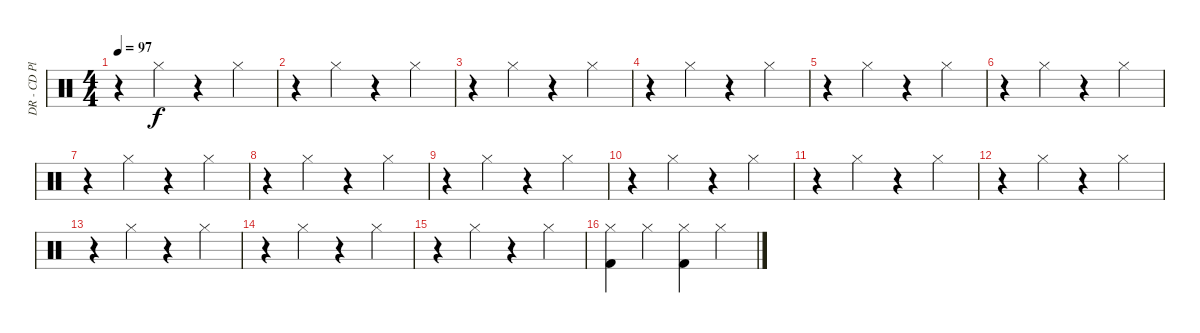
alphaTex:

\track ("DR - CD Player" "DR - CD Pl") {instrument percussion}
\staff {score}
\articulation defaults
\ts (4 4)
\tempo 97
\clef neutral
\ks c
r.4{dy f} "Hi-Hat (closed)".4 r.4 "Hi-Hat (closed)".4 |
r.4 "Hi-Hat (closed)".4 r.4 "Hi-Hat (closed)".4 |
r.4 "Hi-Hat (closed)".4 r.4 "Hi-Hat (closed)".4 |
r.4 "Hi-Hat (closed)".4 r.4 "Hi-Hat (closed)".4 |
r.4 "Hi-Hat (closed)".4 r.4 "Hi-Hat (closed)".4 |
r.4 "Hi-Hat (closed)".4 r.4 "Hi-Hat (closed)".4 |
r.4 "Hi-Hat (closed)".4 r.4 "Hi-Hat (closed)".4 |
r.4 "Hi-Hat (closed)".4 r.4 "Hi-Hat (closed)".4 |
r.4 "Hi-Hat (closed)".4 r.4 "Hi-Hat (closed)".4 |
r.4 "Hi-Hat (closed)".4 r.4 "Hi-Hat (closed)".4 |
r.4 "Hi-Hat (closed)".4 r.4 "Hi-Hat (closed)".4 |
r.4 "Hi-Hat (closed)".4 r.4 "Hi-Hat (closed)".4 |
r.4 "Hi-Hat (closed)".4 r.4 "Hi-Hat (closed)".4 |
r.4 "Hi-Hat (closed)".4 r.4 "Hi-Hat (closed)".4 |
r.4 "Hi-Hat (closed)".4 r.4 "Hi-Hat (closed)".4 |
("Kick (hit) 2" "Hi-Hat (closed)").4 "Hi-Hat (closed)".4 ("Kick (hit) 2" "Hi-Hat (closed)").4 "Hi-Hat (closed)".4
